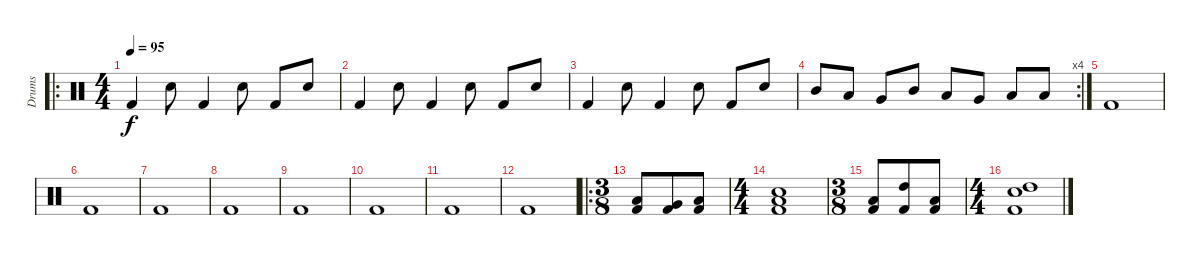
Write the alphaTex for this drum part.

\track ("Drums" "Drums") {instrument percussion}
\staff {score}
\articulation defaults
\ro
\ts (4 4)
\tempo 95
\clef neutral
\ks c "Kick (hit) 2".4{dy f} "Snare (hit) 2".8 "Kick (hit) 2".4 "Snare (hit) 2".8 "Kick (hit) 2".8 "Snare (hit) 2".8
|
"Kick (hit) 2".4 "Snare (hit) 2".8 "Kick (hit) 2".4 "Snare (hit) 2".8 "Kick (hit) 2".8 "Snare (hit) 2".8 |
"Kick (hit) 2".4 "Snare (hit) 2".8 "Kick (hit) 2".4 "Snare (hit) 2".8 "Kick (hit) 2".8 "Snare (hit) 2".8 |
\rc 4 "Mid Tom (hit)".8 "Low Tom (hit)".8 "Very Low Tom (hit)".8 "Mid Tom (hit)".8 "Low Tom (hit)".8 "Very Low Tom (hit)".8 "Low Floor Tom (hit)".8 "Low Floor Tom (hit)".8
|
"Kick (hit) 2".1 |
"Kick (hit) 2".1 |
"Kick (hit) 2".1 |
"Kick (hit) 2".1 |
"Kick (hit) 2".1 |
"Kick (hit) 2".1 |
"Kick (hit) 2".1 |
"Kick (hit) 2".1 |
\ro
\ts (3 8)
("Low Tom (hit)" "Kick (hit) 2").8 ("Very Low Tom (hit)" "Kick (hit) 2").8 ("Low Floor Tom (hit)" "Kick (hit) 2").8 |
\ts (4 4)
("Low Floor Tom (hit)" "Snare (hit) 2" "Kick (hit) 2").1 |
\ts (3 8)
("Low Tom (hit)" "Kick (hit) 2").8 ("High Tom (hit)" "Kick (hit) 2").8 ("Low Floor Tom (hit)" "Kick (hit) 2").8 |
\ts (4 4)
("High Tom (hit)" "Snare (hit) 2" "Kick (hit) 2").1
